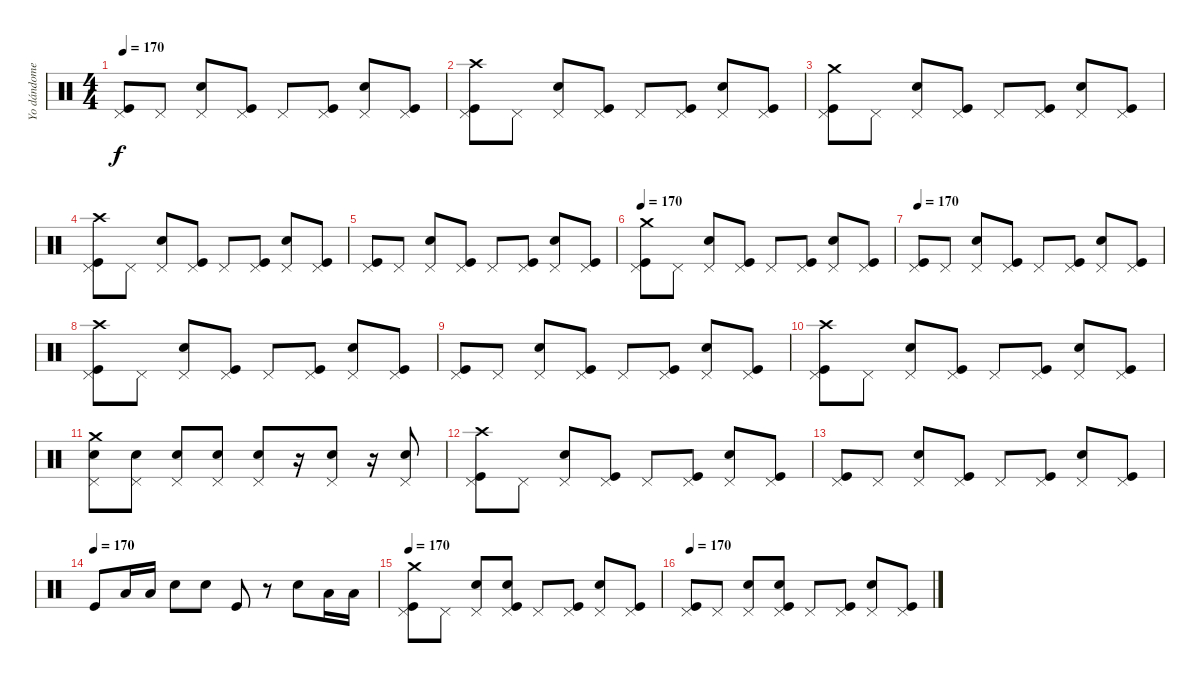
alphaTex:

\track ("Yo dándomelas de batero." "Yo dándome") {instrument percussion}
\staff {score}
\articulation defaults
\ts (4 4)
\tempo 170
\clef neutral
\ks c
("Pedal Hi-Hat (hit)" "Kick (hit)").8{dy f} "Pedal Hi-Hat (hit)".8 ("Pedal Hi-Hat (hit)" "Electric Snare (hit)").8 ("Pedal Hi-Hat (hit)" "Kick (hit)").8 "Pedal Hi-Hat (hit)".8 ("Pedal Hi-Hat (hit)" "Kick (hit)").8 ("Pedal Hi-Hat (hit)" "Electric Snare (hit)").8 ("Pedal Hi-Hat (hit)" "Kick (hit)").8 |
("Pedal Hi-Hat (hit)" "Crash high (hit)" "Kick (hit)").8 "Pedal Hi-Hat (hit)".8 ("Pedal Hi-Hat (hit)" "Electric Snare (hit)").8 ("Pedal Hi-Hat (hit)" "Kick (hit)").8 "Pedal Hi-Hat (hit)".8 ("Pedal Hi-Hat (hit)" "Kick (hit)").8 ("Pedal Hi-Hat (hit)" "Electric Snare (hit)").8 ("Pedal Hi-Hat (hit)" "Kick (hit)").8 |
("Pedal Hi-Hat (hit)" "Crash medium (hit)" "Kick (hit)").8 "Pedal Hi-Hat (hit)".8 ("Pedal Hi-Hat (hit)" "Electric Snare (hit)").8 ("Pedal Hi-Hat (hit)" "Kick (hit)").8 "Pedal Hi-Hat (hit)".8 ("Pedal Hi-Hat (hit)" "Kick (hit)").8 ("Pedal Hi-Hat (hit)" "Electric Snare (hit)").8 ("Pedal Hi-Hat (hit)" "Kick (hit)").8 |
("Pedal Hi-Hat (hit)" "Crash high (hit)" "Kick (hit)").8 "Pedal Hi-Hat (hit)".8 ("Pedal Hi-Hat (hit)" "Electric Snare (hit)").8 ("Pedal Hi-Hat (hit)" "Kick (hit)").8 "Pedal Hi-Hat (hit)".8 ("Pedal Hi-Hat (hit)" "Kick (hit)").8 ("Pedal Hi-Hat (hit)" "Electric Snare (hit)").8 ("Pedal Hi-Hat (hit)" "Kick (hit)").8 |
("Pedal Hi-Hat (hit)" "Kick (hit)").8 "Pedal Hi-Hat (hit)".8 ("Pedal Hi-Hat (hit)" "Electric Snare (hit)").8 ("Pedal Hi-Hat (hit)" "Kick (hit)").8 "Pedal Hi-Hat (hit)".8 ("Pedal Hi-Hat (hit)" "Kick (hit)").8 ("Pedal Hi-Hat (hit)" "Electric Snare (hit)").8 ("Pedal Hi-Hat (hit)" "Kick (hit)").8 |
\tempo 170
("Pedal Hi-Hat (hit)" "Crash medium (hit)" "Kick (hit)").8 "Pedal Hi-Hat (hit)".8 ("Pedal Hi-Hat (hit)" "Electric Snare (hit)").8 ("Pedal Hi-Hat (hit)" "Kick (hit)").8 "Pedal Hi-Hat (hit)".8 ("Pedal Hi-Hat (hit)" "Kick (hit)").8 ("Pedal Hi-Hat (hit)" "Electric Snare (hit)").8 ("Pedal Hi-Hat (hit)" "Kick (hit)").8 |
\tempo 170
("Pedal Hi-Hat (hit)" "Kick (hit)").8 "Pedal Hi-Hat (hit)".8 ("Pedal Hi-Hat (hit)" "Electric Snare (hit)").8 ("Pedal Hi-Hat (hit)" "Kick (hit)").8 "Pedal Hi-Hat (hit)".8 ("Pedal Hi-Hat (hit)" "Kick (hit)").8 ("Pedal Hi-Hat (hit)" "Electric Snare (hit)").8 ("Pedal Hi-Hat (hit)" "Kick (hit)").8 |
("Pedal Hi-Hat (hit)" "Crash high (hit)" "Kick (hit)").8 "Pedal Hi-Hat (hit)".8 ("Pedal Hi-Hat (hit)" "Electric Snare (hit)").8 ("Pedal Hi-Hat (hit)" "Kick (hit)").8 "Pedal Hi-Hat (hit)".8 ("Pedal Hi-Hat (hit)" "Kick (hit)").8 ("Pedal Hi-Hat (hit)" "Electric Snare (hit)").8 ("Pedal Hi-Hat (hit)" "Kick (hit)").8 |
("Pedal Hi-Hat (hit)" "Kick (hit)").8 "Pedal Hi-Hat (hit)".8 ("Pedal Hi-Hat (hit)" "Electric Snare (hit)").8 ("Pedal Hi-Hat (hit)" "Kick (hit)").8 "Pedal Hi-Hat (hit)".8 ("Pedal Hi-Hat (hit)" "Kick (hit)").8 ("Pedal Hi-Hat (hit)" "Electric Snare (hit)").8 ("Pedal Hi-Hat (hit)" "Kick (hit)").8 |
("Pedal Hi-Hat (hit)" "Crash high (hit)" "Kick (hit)").8 "Pedal Hi-Hat (hit)".8 ("Pedal Hi-Hat (hit)" "Electric Snare (hit)").8 ("Pedal Hi-Hat (hit)" "Kick (hit)").8 "Pedal Hi-Hat (hit)".8 ("Pedal Hi-Hat (hit)" "Kick (hit)").8 ("Pedal Hi-Hat (hit)" "Electric Snare (hit)").8 ("Pedal Hi-Hat (hit)" "Kick (hit)").8 |
("Pedal Hi-Hat (hit)" "Crash medium (hit)" "Electric Snare (hit)").8 ("Pedal Hi-Hat (hit)" "Electric Snare (hit)").8 ("Pedal Hi-Hat (hit)" "Electric Snare (hit)").8 ("Pedal Hi-Hat (hit)" "Electric Snare (hit)").8 ("Pedal Hi-Hat (hit)" "Electric Snare (hit)").8 r.16 ("Pedal Hi-Hat (hit)" "Electric Snare (hit)").8 r.16 ("Pedal Hi-Hat (hit)" "Electric Snare (hit)").8 |
("Pedal Hi-Hat (hit)" "Crash high (hit)" "Kick (hit)").8 "Pedal Hi-Hat (hit)".8 ("Pedal Hi-Hat (hit)" "Electric Snare (hit)").8 ("Pedal Hi-Hat (hit)" "Kick (hit)").8 "Pedal Hi-Hat (hit)".8 ("Pedal Hi-Hat (hit)" "Kick (hit)").8 ("Pedal Hi-Hat (hit)" "Electric Snare (hit)").8 ("Pedal Hi-Hat (hit)" "Kick (hit)").8 |
("Pedal Hi-Hat (hit)" "Kick (hit)").8 "Pedal Hi-Hat (hit)".8 ("Pedal Hi-Hat (hit)" "Electric Snare (hit)").8 ("Pedal Hi-Hat (hit)" "Kick (hit)").8 "Pedal Hi-Hat (hit)".8 ("Pedal Hi-Hat (hit)" "Kick (hit)").8 ("Pedal Hi-Hat (hit)" "Electric Snare (hit)").8 ("Pedal Hi-Hat (hit)" "Kick (hit)").8 |
\tempo (170)
"Kick (hit)".8 "Low Tom (hit)".16 "Low Tom (hit)".16 "Electric Snare (hit)".8 "Electric Snare (hit)".8 "Kick (hit)".8 r.8 "Electric Snare (hit)".8 "Low Tom (hit)".16 "Low Tom (hit)".16 |
\tempo 170
("Pedal Hi-Hat (hit)" "Crash medium (hit)" "Kick (hit)").8 "Pedal Hi-Hat (hit)".8 ("Pedal Hi-Hat (hit)" "Electric Snare (hit)").8 ("Pedal Hi-Hat (hit)" "Electric Snare (hit)" "Kick (hit)").8 "Pedal Hi-Hat (hit)".8 ("Pedal Hi-Hat (hit)" "Kick (hit)").8 ("Pedal Hi-Hat (hit)" "Electric Snare (hit)").8 ("Pedal Hi-Hat (hit)" "Kick (hit)").8 |
\tempo 170
("Pedal Hi-Hat (hit)" "Kick (hit)").8 "Pedal Hi-Hat (hit)".8 ("Pedal Hi-Hat (hit)" "Electric Snare (hit)").8 ("Pedal Hi-Hat (hit)" "Electric Snare (hit)" "Kick (hit)").8 "Pedal Hi-Hat (hit)".8 ("Pedal Hi-Hat (hit)" "Kick (hit)").8 ("Pedal Hi-Hat (hit)" "Electric Snare (hit)").8 ("Pedal Hi-Hat (hit)" "Kick (hit)").8
